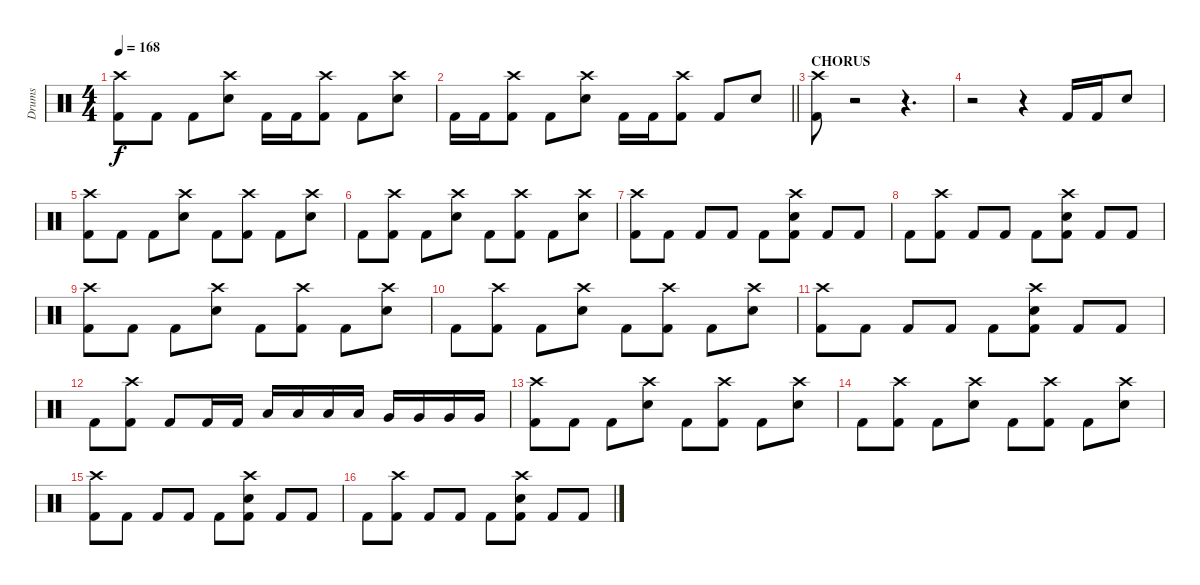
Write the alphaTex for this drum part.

\track ("Drums" "Drums") {instrument percussion}
\staff {score}
\articulation defaults
\ts (4 4)
\tempo 168
\clef neutral
\ks c
("Crash high (hit)" "Kick (hit) 2").8{dy f} "Kick (hit) 2".8 "Kick (hit) 2".8 ("Crash high (hit)" "Snare (hit) 2").8 "Kick (hit) 2".16 "Kick (hit) 2".16 ("Crash high (hit)" "Kick (hit) 2").8 "Kick (hit) 2".8 ("Crash high (hit)" "Snare (hit) 2").8 |
\barLineRight lightlight "Kick (hit) 2".16 "Kick (hit) 2".16
("Crash high (hit)" "Kick (hit) 2").8 "Kick (hit) 2".8 ("Crash high (hit)" "Snare (hit) 2").8 "Kick (hit) 2".16 "Kick (hit) 2".16 ("Crash high (hit)" "Kick (hit) 2").8 "Kick (hit) 2".8 "Snare (hit) 2".8 |
\section ("" "CHORUS")
("Crash high (hit)" "Kick (hit) 2").8 r.2 r.4{d} |
r.2 r.4 "Kick (hit) 2".16 "Kick (hit) 2".16 "Snare (hit) 2".8 |
("Crash high (hit)" "Kick (hit) 2").8 "Kick (hit) 2".8 "Kick (hit) 2".8 ("Crash high (hit)" "Snare (hit) 2").8 "Kick (hit) 2".8 ("Crash high (hit)" "Kick (hit) 2").8 "Kick (hit) 2".8 ("Crash high (hit)" "Snare (hit) 2").8 |
"Kick (hit) 2".8 ("Crash high (hit)" "Kick (hit) 2").8 "Kick (hit) 2".8 ("Crash high (hit)" "Snare (hit) 2").8 "Kick (hit) 2".8 ("Crash high (hit)" "Kick (hit) 2").8 "Kick (hit) 2".8 ("Crash high (hit)" "Snare (hit) 2").8 |
("Crash high (hit)" "Kick (hit) 2").8 "Kick (hit) 2".8 "Kick (hit) 2".8 "Kick (hit) 2".8 "Kick (hit) 2".8 ("Crash high (hit)" "Snare (hit) 2" "Kick (hit) 2").8 "Kick (hit) 2".8 "Kick (hit) 2".8 |
"Kick (hit) 2".8 ("Crash high (hit)" "Kick (hit) 2").8 "Kick (hit) 2".8 "Kick (hit) 2".8 "Kick (hit) 2".8 ("Crash high (hit)" "Snare (hit) 2" "Kick (hit) 2").8 "Kick (hit) 2".8 "Kick (hit) 2".8 |
("Crash high (hit)" "Kick (hit) 2").8 "Kick (hit) 2".8 "Kick (hit) 2".8 ("Crash high (hit)" "Snare (hit) 2").8 "Kick (hit) 2".8 ("Crash high (hit)" "Kick (hit) 2").8 "Kick (hit) 2".8 ("Crash high (hit)" "Snare (hit) 2").8 |
"Kick (hit) 2".8 ("Crash high (hit)" "Kick (hit) 2").8 "Kick (hit) 2".8 ("Crash high (hit)" "Snare (hit) 2").8 "Kick (hit) 2".8 ("Crash high (hit)" "Kick (hit) 2").8 "Kick (hit) 2".8 ("Crash high (hit)" "Snare (hit) 2").8 |
("Crash high (hit)" "Kick (hit) 2").8 "Kick (hit) 2".8 "Kick (hit) 2".8 "Kick (hit) 2".8 "Kick (hit) 2".8 ("Crash high (hit)" "Snare (hit) 2" "Kick (hit) 2").8 "Kick (hit) 2".8 "Kick (hit) 2".8 |
"Kick (hit) 2".8 ("Crash high (hit)" "Kick (hit) 2").8 "Kick (hit) 2".8 "Kick (hit) 2".16 "Kick (hit) 2".16 "Low Tom (hit)".16 "Low Tom (hit)".16 "Low Tom (hit)".16 "Low Tom (hit)".16 "Very Low Tom (hit)".16 "Very Low Tom (hit)".16 "Very Low Tom (hit)".16 "Very Low Tom (hit)".16 |
("Crash high (hit)" "Kick (hit) 2").8 "Kick (hit) 2".8 "Kick (hit) 2".8 ("Crash high (hit)" "Snare (hit) 2").8 "Kick (hit) 2".8 ("Crash high (hit)" "Kick (hit) 2").8 "Kick (hit) 2".8 ("Crash high (hit)" "Snare (hit) 2").8 |
"Kick (hit) 2".8 ("Crash high (hit)" "Kick (hit) 2").8 "Kick (hit) 2".8 ("Crash high (hit)" "Snare (hit) 2").8 "Kick (hit) 2".8 ("Crash high (hit)" "Kick (hit) 2").8 "Kick (hit) 2".8 ("Crash high (hit)" "Snare (hit) 2").8 |
("Crash high (hit)" "Kick (hit) 2").8 "Kick (hit) 2".8 "Kick (hit) 2".8 "Kick (hit) 2".8 "Kick (hit) 2".8 ("Crash high (hit)" "Snare (hit) 2" "Kick (hit) 2").8 "Kick (hit) 2".8 "Kick (hit) 2".8 |
"Kick (hit) 2".8 ("Crash high (hit)" "Kick (hit) 2").8 "Kick (hit) 2".8 "Kick (hit) 2".8 "Kick (hit) 2".8 ("Crash high (hit)" "Snare (hit) 2" "Kick (hit) 2").8 "Kick (hit) 2".8 "Kick (hit) 2".8
